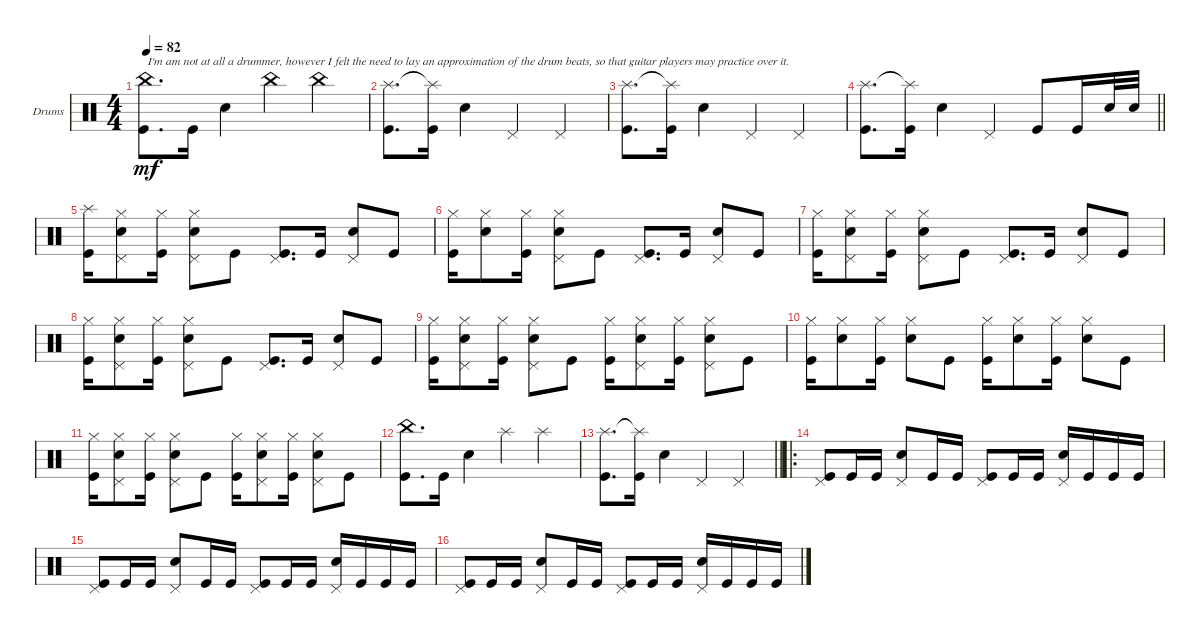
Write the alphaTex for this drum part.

\bracketExtendMode groupsimilarinstruments
\firstSystemTrackNameOrientation horizontal
\otherSystemsTrackNameOrientation horizontal
\track ("Drumkit" "Drums") {multiBarRest instrument percussion}
\staff {score}
\articulation defaults
\ts (4 4)
\tempo 82
\clef neutral
\ks c
("Kick (hit)" "China (hit)").8{d txt "I'm am not at all a drummer, however I felt the need to lay an approximation of the drum beats, so that guitar players may practice over it." dy mf} "Kick (hit)".16 "Snare (hit) 2".4 "China (hit)".4 "China (hit)".4 |
("Kick (hit)" "Splash (hit)").8{d} ("Kick (hit)" "Splash (hit)"{t}).16 "Snare (hit) 2".4 "Pedal Hi-Hat (hit)".4 "Pedal Hi-Hat (hit)".4 |
("Kick (hit)" "Splash (hit)").8{d} ("Kick (hit)" "Splash (hit)"{t}).16 "Snare (hit) 2".4 "Pedal Hi-Hat (hit)".4 "Pedal Hi-Hat (hit)".4 |
\barLineRight lightlight
("Kick (hit)" "Splash (hit)").8{d} ("Kick (hit)" "Splash (hit)"{t}).16 "Snare (hit) 2".4 "Pedal Hi-Hat (hit)".4 "Kick (hit)".8 "Kick (hit)".16 "Snare (hit) 2".32 "Snare (hit) 2".32 |
("Kick (hit)" "Splash (hit)").16 ("Snare (hit) 2" "Hi-Hat (closed)" "Pedal Hi-Hat (hit)").8 ("Kick (hit)" "Hi-Hat (closed)").16 ("Hi-Hat (closed)" "Snare (hit) 2" "Pedal Hi-Hat (hit)").8 "Kick (hit)".8 ("Kick (hit)" "Pedal Hi-Hat (hit)").8{d} "Kick (hit)".16 ("Snare (hit) 2" "Pedal Hi-Hat (hit)").8 "Kick (hit)".8 |
("Kick (hit)" "Hi-Hat (closed)").16 ("Snare (hit) 2" "Hi-Hat (closed)").8 ("Kick (hit)" "Hi-Hat (closed)").16 ("Hi-Hat (closed)" "Snare (hit) 2" "Pedal Hi-Hat (hit)").8 "Kick (hit)".8 ("Kick (hit)" "Pedal Hi-Hat (hit)").8{d} "Kick (hit)".16 ("Snare (hit) 2" "Pedal Hi-Hat (hit)").8 "Kick (hit)".8 |
("Kick (hit)" "Hi-Hat (closed)").16 ("Snare (hit) 2" "Hi-Hat (closed)" "Pedal Hi-Hat (hit)").8 ("Kick (hit)" "Hi-Hat (closed)").16 ("Hi-Hat (closed)" "Snare (hit) 2" "Pedal Hi-Hat (hit)").8 "Kick (hit)".8 ("Kick (hit)" "Pedal Hi-Hat (hit)").8{d} "Kick (hit)".16 ("Snare (hit) 2" "Pedal Hi-Hat (hit)").8 "Kick (hit)".8 |
("Kick (hit)" "Hi-Hat (closed)").16 ("Snare (hit) 2" "Hi-Hat (closed)" "Pedal Hi-Hat (hit)").8 ("Kick (hit)" "Hi-Hat (closed)").16 ("Hi-Hat (closed)" "Snare (hit) 2" "Pedal Hi-Hat (hit)").8 "Kick (hit)".8 ("Kick (hit)" "Pedal Hi-Hat (hit)").8{d} "Kick (hit)".16 ("Snare (hit) 2" "Pedal Hi-Hat (hit)").8 "Kick (hit)".8 |
("Kick (hit)" "Hi-Hat (closed)").16 ("Snare (hit) 2" "Hi-Hat (closed)" "Pedal Hi-Hat (hit)").8 ("Kick (hit)" "Hi-Hat (closed)").16 ("Hi-Hat (closed)" "Snare (hit) 2" "Pedal Hi-Hat (hit)").8 "Kick (hit)".8 ("Kick (hit)" "Hi-Hat (closed)").16 ("Snare (hit) 2" "Hi-Hat (closed)" "Pedal Hi-Hat (hit)").8 ("Kick (hit)" "Hi-Hat (closed)").16 ("Hi-Hat (closed)" "Snare (hit) 2" "Pedal Hi-Hat (hit)").8 "Kick (hit)".8 |
("Kick (hit)" "Hi-Hat (closed)").16 ("Snare (hit) 2" "Hi-Hat (closed)").8 ("Kick (hit)" "Hi-Hat (closed)").16 ("Hi-Hat (closed)" "Snare (hit) 2").8 "Kick (hit)".8 ("Kick (hit)" "Hi-Hat (closed)").16 ("Snare (hit) 2" "Hi-Hat (closed)").8 ("Kick (hit)" "Hi-Hat (closed)").16 ("Hi-Hat (closed)" "Snare (hit) 2").8 "Kick (hit)".8 |
("Kick (hit)" "Hi-Hat (closed)").16 ("Snare (hit) 2" "Hi-Hat (closed)" "Pedal Hi-Hat (hit)").8 ("Kick (hit)" "Hi-Hat (closed)").16 ("Hi-Hat (closed)" "Snare (hit) 2" "Pedal Hi-Hat (hit)").8 "Kick (hit)".8 ("Kick (hit)" "Hi-Hat (closed)").16 ("Snare (hit) 2" "Hi-Hat (closed)" "Pedal Hi-Hat (hit)").8 ("Kick (hit)" "Hi-Hat (closed)").16 ("Hi-Hat (closed)" "Snare (hit) 2" "Pedal Hi-Hat (hit)").8 "Kick (hit)".8 |
("Kick (hit)" "China (hit)").8{d} "Kick (hit)".16 "Snare (hit) 2".4 "Splash (hit)".4 "Splash (hit)".4 |
\barLineRight lightlight
("Kick (hit)" "Splash (hit)").8{d} ("Kick (hit)" "Splash (hit)"{t}).16 "Snare (hit) 2".4 "Pedal Hi-Hat (hit)".4 "Pedal Hi-Hat (hit)".4 |
\ro
("Kick (hit)" "Pedal Hi-Hat (hit)").8 "Kick (hit)".16 "Kick (hit)".16 ("Snare (hit) 2" "Pedal Hi-Hat (hit)").8 "Kick (hit)".16 "Kick (hit)".16 ("Kick (hit)" "Pedal Hi-Hat (hit)").8 "Kick (hit)".16 "Kick (hit)".16 ("Pedal Hi-Hat (hit)" "Snare (hit) 2").16 "Kick (hit)".16 "Kick (hit)".16 "Kick (hit)".16 |
("Kick (hit)" "Pedal Hi-Hat (hit)").8 "Kick (hit)".16 "Kick (hit)".16 ("Snare (hit) 2" "Pedal Hi-Hat (hit)").8 "Kick (hit)".16 "Kick (hit)".16 ("Kick (hit)" "Pedal Hi-Hat (hit)").8 "Kick (hit)".16 "Kick (hit)".16 ("Pedal Hi-Hat (hit)" "Snare (hit) 2").16 "Kick (hit)".16 "Kick (hit)".16 "Kick (hit)".16 |
("Kick (hit)" "Pedal Hi-Hat (hit)").8 "Kick (hit)".16 "Kick (hit)".16 ("Snare (hit) 2" "Pedal Hi-Hat (hit)").8 "Kick (hit)".16 "Kick (hit)".16 ("Kick (hit)" "Pedal Hi-Hat (hit)").8 "Kick (hit)".16 "Kick (hit)".16 ("Pedal Hi-Hat (hit)" "Snare (hit) 2").16 "Kick (hit)".16 "Kick (hit)".16 "Kick (hit)".16
